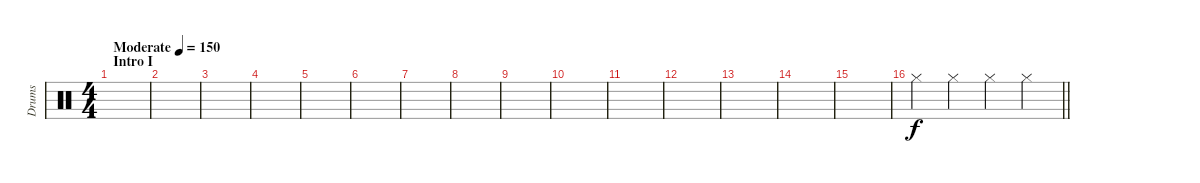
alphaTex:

\track ("Drums" "Drums") {instrument percussion}
\staff {score}
\articulation defaults
\ts (4 4)
\section ("" "Intro I")
\tempo (150 "Moderate")
\clef neutral
\ks c
|
|
|
|
|
|
|
|
|
|
|
|
|
|
|
\barLineRight lightlight "Hi-Hat (closed)".4 "Hi-Hat (closed)".4 "Hi-Hat (closed)".4 "Hi-Hat (closed)".4
